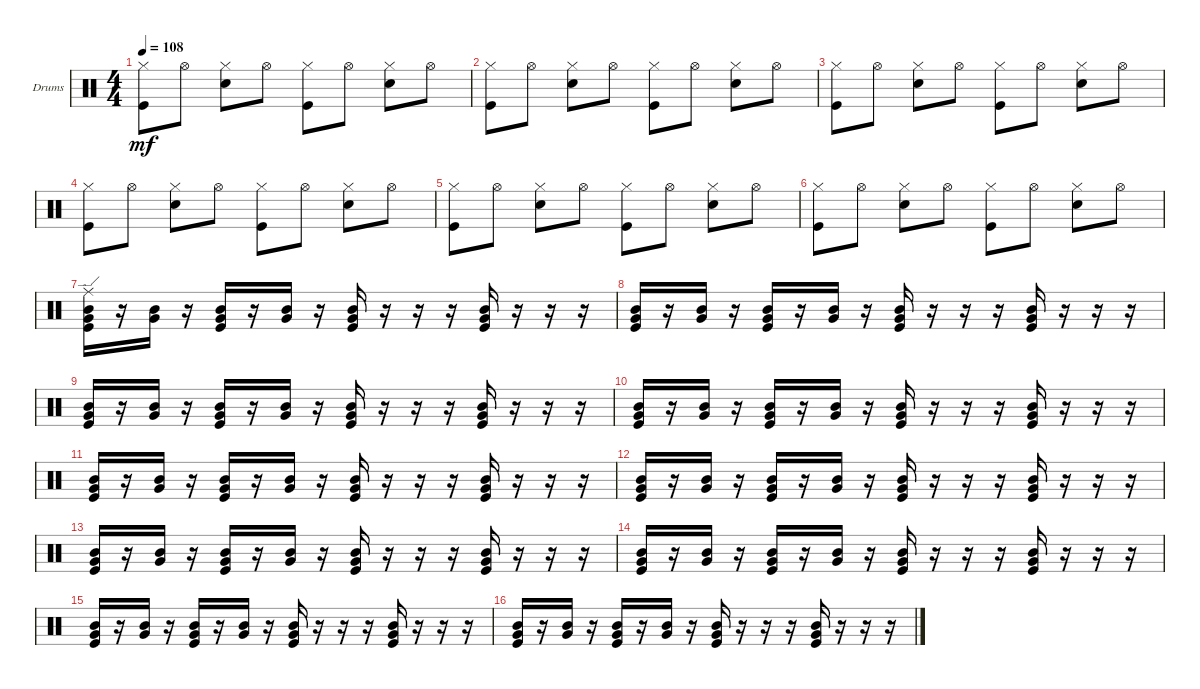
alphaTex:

\defaultSystemsLayout 4
\bracketExtendMode groupsimilarinstruments
\firstSystemTrackNameOrientation horizontal
\otherSystemsTrackNameOrientation horizontal
\track ("Drumkit" "Drums") {instrument percussion}
\staff {score}
\articulation defaults
\ts (4 4)
\tempo 108
\clef neutral
\scale
0.333333
\ks c
("Hi-Hat (closed)" "Kick (hit)").8{dy mf} "Hi-Hat (open)".8 ("Hi-Hat (closed)" "Snare (hit) 2").8 "Hi-Hat (open)".8 ("Hi-Hat (closed)" "Kick (hit)").8 "Hi-Hat (open)".8 ("Hi-Hat (closed)" "Snare (hit) 2").8 "Hi-Hat (open)".8 |
\scale
0.333333 ("Hi-Hat (closed)" "Kick (hit)").8 "Hi-Hat (open)".8 ("Hi-Hat (closed)" "Snare (hit) 2").8 "Hi-Hat (open)".8 ("Hi-Hat (closed)" "Kick (hit)").8 "Hi-Hat (open)".8 ("Hi-Hat (closed)" "Snare (hit) 2").8 "Hi-Hat (open)".8 |
\scale
0.333333 ("Hi-Hat (closed)" "Kick (hit)").8 "Hi-Hat (open)".8 ("Hi-Hat (closed)" "Snare (hit) 2").8 "Hi-Hat (open)".8 ("Hi-Hat (closed)" "Kick (hit)").8 "Hi-Hat (open)".8 ("Hi-Hat (closed)" "Snare (hit) 2").8 "Hi-Hat (open)".8 |
\scale
0.333333 ("Hi-Hat (closed)" "Kick (hit)").8 "Hi-Hat (open)".8 ("Hi-Hat (closed)" "Snare (hit) 2").8 "Hi-Hat (open)".8 ("Hi-Hat (closed)" "Kick (hit)").8 "Hi-Hat (open)".8 ("Hi-Hat (closed)" "Snare (hit) 2").8 "Hi-Hat (open)".8 |
\scale
0.333333 ("Hi-Hat (closed)" "Kick (hit)").8 "Hi-Hat (open)".8 ("Hi-Hat (closed)" "Snare (hit) 2").8 "Hi-Hat (open)".8 ("Hi-Hat (closed)" "Kick (hit)").8 "Hi-Hat (open)".8 ("Hi-Hat (closed)" "Snare (hit) 2").8 "Hi-Hat (open)".8 |
("Hi-Hat (closed)" "Kick (hit)").8 "Hi-Hat (open)".8 ("Hi-Hat (closed)" "Snare (hit) 2").8 "Hi-Hat (open)".8 ("Hi-Hat (closed)" "Kick (hit)").8 "Hi-Hat (open)".8 ("Hi-Hat (closed)" "Snare (hit) 2").8 "Hi-Hat (open)".8 |
("Kick (hit)" "Mid Tom (hit)" "Very Low Tom (hit)" "Ride (edge)").16 r.16 ("Mid Tom (hit)" "Very Low Tom (hit)").16 r.16 ("Kick (hit)" "Mid Tom (hit)" "Very Low Tom (hit)").16 r.16 ("Mid Tom (hit)" "Very Low Tom (hit)").16 r.16 ("Kick (hit)" "Mid Tom (hit)" "Very Low Tom (hit)").16 r.16 r.16 r.16 ("Kick (hit)" "Mid Tom (hit)" "Very Low Tom (hit)").16 r.16 r.16 r.16 |
("Kick (hit)" "Mid Tom (hit)" "Very Low Tom (hit)").16 r.16 ("Mid Tom (hit)" "Very Low Tom (hit)").16 r.16 ("Kick (hit)" "Mid Tom (hit)" "Very Low Tom (hit)").16 r.16 ("Mid Tom (hit)" "Very Low Tom (hit)").16 r.16 ("Kick (hit)" "Mid Tom (hit)" "Very Low Tom (hit)").16 r.16 r.16 r.16 ("Kick (hit)" "Mid Tom (hit)" "Very Low Tom (hit)").16 r.16 r.16 r.16 |
("Kick (hit)" "Mid Tom (hit)" "Very Low Tom (hit)").16 r.16 ("Mid Tom (hit)" "Very Low Tom (hit)").16 r.16 ("Kick (hit)" "Mid Tom (hit)" "Very Low Tom (hit)").16 r.16 ("Mid Tom (hit)" "Very Low Tom (hit)").16 r.16 ("Kick (hit)" "Mid Tom (hit)" "Very Low Tom (hit)").16 r.16 r.16 r.16 ("Kick (hit)" "Mid Tom (hit)" "Very Low Tom (hit)").16 r.16 r.16 r.16 |
("Kick (hit)" "Mid Tom (hit)" "Very Low Tom (hit)").16 r.16 ("Mid Tom (hit)" "Very Low Tom (hit)").16 r.16 ("Kick (hit)" "Mid Tom (hit)" "Very Low Tom (hit)").16 r.16 ("Mid Tom (hit)" "Very Low Tom (hit)").16 r.16 ("Kick (hit)" "Mid Tom (hit)" "Very Low Tom (hit)").16 r.16 r.16 r.16 ("Kick (hit)" "Mid Tom (hit)" "Very Low Tom (hit)").16 r.16 r.16 r.16 |
("Kick (hit)" "Mid Tom (hit)" "Very Low Tom (hit)").16 r.16 ("Mid Tom (hit)" "Very Low Tom (hit)").16 r.16 ("Kick (hit)" "Mid Tom (hit)" "Very Low Tom (hit)").16 r.16 ("Mid Tom (hit)" "Very Low Tom (hit)").16 r.16 ("Kick (hit)" "Mid Tom (hit)" "Very Low Tom (hit)").16 r.16 r.16 r.16 ("Kick (hit)" "Mid Tom (hit)" "Very Low Tom (hit)").16 r.16 r.16 r.16 |
("Kick (hit)" "Mid Tom (hit)" "Very Low Tom (hit)").16 r.16 ("Mid Tom (hit)" "Very Low Tom (hit)").16 r.16 ("Kick (hit)" "Mid Tom (hit)" "Very Low Tom (hit)").16 r.16 ("Mid Tom (hit)" "Very Low Tom (hit)").16 r.16 ("Kick (hit)" "Mid Tom (hit)" "Very Low Tom (hit)").16 r.16 r.16 r.16 ("Kick (hit)" "Mid Tom (hit)" "Very Low Tom (hit)").16 r.16 r.16 r.16 |
("Kick (hit)" "Mid Tom (hit)" "Very Low Tom (hit)").16 r.16 ("Mid Tom (hit)" "Very Low Tom (hit)").16 r.16 ("Kick (hit)" "Mid Tom (hit)" "Very Low Tom (hit)").16 r.16 ("Mid Tom (hit)" "Very Low Tom (hit)").16 r.16 ("Kick (hit)" "Mid Tom (hit)" "Very Low Tom (hit)").16 r.16 r.16 r.16 ("Kick (hit)" "Mid Tom (hit)" "Very Low Tom (hit)").16 r.16 r.16 r.16 |
("Kick (hit)" "Mid Tom (hit)" "Very Low Tom (hit)").16 r.16 ("Mid Tom (hit)" "Very Low Tom (hit)").16 r.16 ("Kick (hit)" "Mid Tom (hit)" "Very Low Tom (hit)").16 r.16 ("Mid Tom (hit)" "Very Low Tom (hit)").16 r.16 ("Kick (hit)" "Mid Tom (hit)" "Very Low Tom (hit)").16 r.16 r.16 r.16 ("Kick (hit)" "Mid Tom (hit)" "Very Low Tom (hit)").16 r.16 r.16 r.16 |
("Kick (hit)" "Mid Tom (hit)" "Very Low Tom (hit)").16 r.16 ("Mid Tom (hit)" "Very Low Tom (hit)").16 r.16 ("Kick (hit)" "Mid Tom (hit)" "Very Low Tom (hit)").16 r.16 ("Mid Tom (hit)" "Very Low Tom (hit)").16 r.16 ("Kick (hit)" "Mid Tom (hit)" "Very Low Tom (hit)").16 r.16 r.16 r.16 ("Kick (hit)" "Mid Tom (hit)" "Very Low Tom (hit)").16 r.16 r.16 r.16 |
("Kick (hit)" "Mid Tom (hit)" "Very Low Tom (hit)").16 r.16 ("Mid Tom (hit)" "Very Low Tom (hit)").16 r.16 ("Kick (hit)" "Mid Tom (hit)" "Very Low Tom (hit)").16 r.16 ("Mid Tom (hit)" "Very Low Tom (hit)").16 r.16 ("Kick (hit)" "Mid Tom (hit)" "Very Low Tom (hit)").16 r.16 r.16 r.16 ("Kick (hit)" "Mid Tom (hit)" "Very Low Tom (hit)").16 r.16 r.16 r.16
